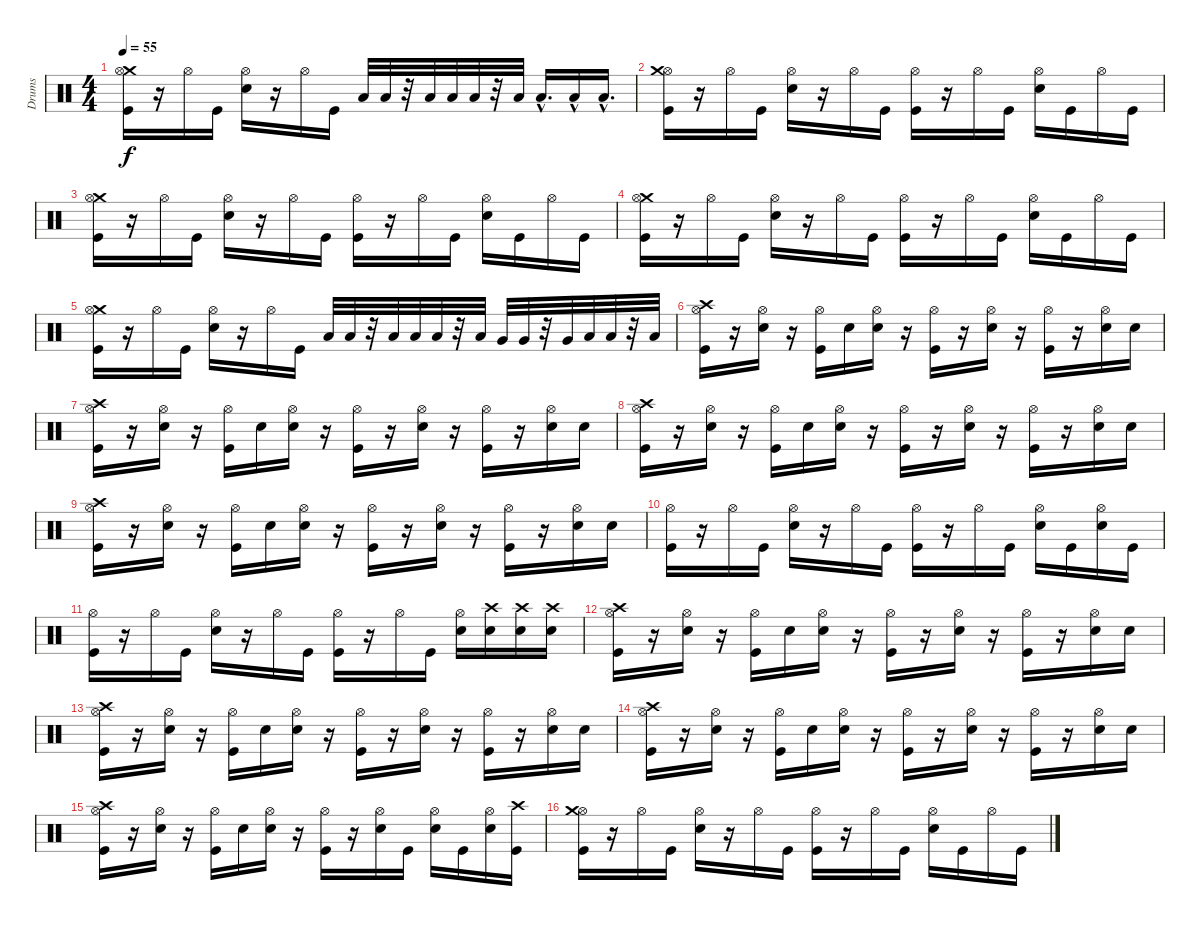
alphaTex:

\track ("Drums" "Drums") {instrument percussion}
\staff {score}
\articulation defaults
\ts (4 4)
\tempo 55
\clef neutral
\ks c
("Kick (hit)" "Crash medium (hit)" "Hi-Hat (open)").16{dy f} r.16 "Hi-Hat (open)".16 "Kick (hit)".16 ("Electric Snare (hit)" "Hi-Hat (open)").16 r.16 "Hi-Hat (open)".16 "Kick (hit)".16 "Low Tom (hit)".32 "Low Tom (hit)".32 r.32 "Low Tom (hit)".32 "Low Tom (hit)".32 "Low Tom (hit)".32 r.32 "Low Tom (hit)".32 "Low Tom (hit)"{hac}.16{d} "Low Tom (hit)"{hac}.16 "Low Tom (hit)"{hac}.16{d} |
("Kick (hit)" "Hi-Hat (open)" "Crash medium (hit)").16 r.16 "Hi-Hat (open)".16 "Kick (hit)".16 ("Hi-Hat (open)" "Electric Snare (hit)").16 r.16 "Hi-Hat (open)".16 "Kick (hit)".16 ("Hi-Hat (open)" "Kick (hit)").16 r.16 "Hi-Hat (open)".16 "Kick (hit)".16 ("Electric Snare (hit)" "Hi-Hat (open)").16 "Kick (hit)".16 "Hi-Hat (open)".16 "Kick (hit)".16 |
("Crash medium (hit)" "Hi-Hat (open)" "Kick (hit)").16 r.16 "Hi-Hat (open)".16 "Kick (hit)".16 ("Electric Snare (hit)" "Hi-Hat (open)").16 r.16 "Hi-Hat (open)".16 "Kick (hit)".16 ("Kick (hit)" "Hi-Hat (open)").16 r.16 "Hi-Hat (open)".16 "Kick (hit)".16 ("Hi-Hat (open)" "Electric Snare (hit)").16 "Kick (hit)".16 "Hi-Hat (open)".16 "Kick (hit)".16 |
("Crash medium (hit)" "Hi-Hat (open)" "Kick (hit)").16 r.16 "Hi-Hat (open)".16 "Kick (hit)".16 ("Hi-Hat (open)" "Electric Snare (hit)").16 r.16 "Hi-Hat (open)".16 "Kick (hit)".16 ("Hi-Hat (open)" "Kick (hit)").16 r.16 "Hi-Hat (open)".16 "Kick (hit)".16 ("Electric Snare (hit)" "Hi-Hat (open)").16 "Kick (hit)".16 "Hi-Hat (open)".16 "Kick (hit)".16 |
("Crash medium (hit)" "Kick (hit)" "Hi-Hat (open)").16 r.16 "Hi-Hat (open)".16 "Kick (hit)".16 ("Hi-Hat (open)" "Electric Snare (hit)").16 r.16 "Hi-Hat (open)".16 "Kick (hit)".16 "Low Tom (hit)".32 "Low Tom (hit)".32 r.32 "Low Tom (hit)".32 "Low Tom (hit)".32 "Low Tom (hit)".32 r.32 "Low Tom (hit)".32 "Very Low Tom (hit)".32 "Very Low Tom (hit)".32 r.32 "Very Low Tom (hit)".32 "Low Floor Tom (hit)".32 "Low Floor Tom (hit)".32 r.32 "Low Floor Tom (hit)".32 |
("Crash high (hit)" "Hi-Hat (open)" "Kick (hit)").16 r.16 ("Hi-Hat (open)" "Electric Snare (hit)").16 r.16 ("Hi-Hat (open)" "Kick (hit)").16 "Electric Snare (hit)".16 ("Electric Snare (hit)" "Hi-Hat (open)").16 r.16 ("Kick (hit)" "Hi-Hat (open)").16 r.16 ("Hi-Hat (open)" "Electric Snare (hit)").16 r.16 ("Hi-Hat (open)" "Kick (hit)").16 r.16 ("Hi-Hat (open)" "Electric Snare (hit)").16 "Electric Snare (hit)".16 |
("Crash high (hit)" "Hi-Hat (open)" "Kick (hit)").16 r.16 ("Hi-Hat (open)" "Electric Snare (hit)").16 r.16 ("Kick (hit)" "Hi-Hat (open)").16 "Electric Snare (hit)".16 ("Hi-Hat (open)" "Electric Snare (hit)").16 r.16 ("Kick (hit)" "Hi-Hat (open)").16 r.16 ("Electric Snare (hit)" "Hi-Hat (open)").16 r.16 ("Kick (hit)" "Hi-Hat (open)").16 r.16 ("Electric Snare (hit)" "Hi-Hat (open)").16 "Electric Snare (hit)".16 |
("Hi-Hat (open)" "Kick (hit)" "Crash high (hit)").16 r.16 ("Electric Snare (hit)" "Hi-Hat (open)").16 r.16 ("Hi-Hat (open)" "Kick (hit)").16 "Electric Snare (hit)".16 ("Hi-Hat (open)" "Electric Snare (hit)").16 r.16 ("Hi-Hat (open)" "Kick (hit)").16 r.16 ("Hi-Hat (open)" "Electric Snare (hit)").16 r.16 ("Hi-Hat (open)" "Kick (hit)").16 r.16 ("Electric Snare (hit)" "Hi-Hat (open)").16 "Electric Snare (hit)".16 |
("Kick (hit)" "Crash high (hit)" "Hi-Hat (open)").16 r.16 ("Electric Snare (hit)" "Hi-Hat (open)").16 r.16 ("Kick (hit)" "Hi-Hat (open)").16 "Electric Snare (hit)".16 ("Hi-Hat (open)" "Electric Snare (hit)").16 r.16 ("Hi-Hat (open)" "Kick (hit)").16 r.16 ("Electric Snare (hit)" "Hi-Hat (open)").16 r.16 ("Hi-Hat (open)" "Kick (hit)").16 r.16 ("Hi-Hat (open)" "Electric Snare (hit)").16 "Electric Snare (hit)".16 |
("Hi-Hat (open)" "Kick (hit)").16 r.16 "Hi-Hat (open)".16 "Kick (hit)".16 ("Hi-Hat (open)" "Electric Snare (hit)").16 r.16 "Hi-Hat (open)".16 "Kick (hit)".16 ("Hi-Hat (open)" "Kick (hit)").16 r.16 "Hi-Hat (open)".16 "Kick (hit)".16 ("Hi-Hat (open)" "Electric Snare (hit)").16 "Kick (hit)".16 ("Hi-Hat (open)" "Electric Snare (hit)").16 "Kick (hit)".16 |
("Hi-Hat (open)" "Kick (hit)").16 r.16 "Hi-Hat (open)".16 "Kick (hit)".16 ("Hi-Hat (open)" "Electric Snare (hit)").16 r.16 "Hi-Hat (open)".16 "Kick (hit)".16 ("Hi-Hat (open)" "Kick (hit)").16 r.16 "Hi-Hat (open)".16 "Kick (hit)".16 ("Hi-Hat (open)" "Electric Snare (hit)").16 ("Crash high (hit)" "Electric Snare (hit)").16 ("Crash high (hit)" "Electric Snare (hit)").16 ("Crash high (hit)" "Electric Snare (hit)").16 |
("Crash high (hit)" "Hi-Hat (open)" "Kick (hit)").16 r.16 ("Hi-Hat (open)" "Electric Snare (hit)").16 r.16 ("Hi-Hat (open)" "Kick (hit)").16 "Electric Snare (hit)".16 ("Electric Snare (hit)" "Hi-Hat (open)").16 r.16 ("Kick (hit)" "Hi-Hat (open)").16 r.16 ("Hi-Hat (open)" "Electric Snare (hit)").16 r.16 ("Hi-Hat (open)" "Kick (hit)").16 r.16 ("Hi-Hat (open)" "Electric Snare (hit)").16 "Electric Snare (hit)".16 |
("Crash high (hit)" "Hi-Hat (open)" "Kick (hit)").16 r.16 ("Hi-Hat (open)" "Electric Snare (hit)").16 r.16 ("Kick (hit)" "Hi-Hat (open)").16 "Electric Snare (hit)".16 ("Hi-Hat (open)" "Electric Snare (hit)").16 r.16 ("Kick (hit)" "Hi-Hat (open)").16 r.16 ("Electric Snare (hit)" "Hi-Hat (open)").16 r.16 ("Kick (hit)" "Hi-Hat (open)").16 r.16 ("Electric Snare (hit)" "Hi-Hat (open)").16 "Electric Snare (hit)".16 |
("Hi-Hat (open)" "Kick (hit)" "Crash high (hit)").16 r.16 ("Electric Snare (hit)" "Hi-Hat (open)").16 r.16 ("Hi-Hat (open)" "Kick (hit)").16 "Electric Snare (hit)".16 ("Hi-Hat (open)" "Electric Snare (hit)").16 r.16 ("Hi-Hat (open)" "Kick (hit)").16 r.16 ("Hi-Hat (open)" "Electric Snare (hit)").16 r.16 ("Hi-Hat (open)" "Kick (hit)").16 r.16 ("Electric Snare (hit)" "Hi-Hat (open)").16 "Electric Snare (hit)".16 |
("Kick (hit)" "Crash high (hit)" "Hi-Hat (open)").16 r.16 ("Electric Snare (hit)" "Hi-Hat (open)").16 r.16 ("Kick (hit)" "Hi-Hat (open)").16 "Electric Snare (hit)".16 ("Hi-Hat (open)" "Electric Snare (hit)").16 r.16 ("Hi-Hat (open)" "Kick (hit)").16 r.16 ("Electric Snare (hit)" "Hi-Hat (open)").16 "Kick (hit)".16 ("Electric Snare (hit)" "Hi-Hat (open)").16 "Kick (hit)".16 ("Hi-Hat (open)" "Electric Snare (hit)").16 ("Crash high (hit)" "Kick (hit)").16 |
("Kick (hit)" "Hi-Hat (open)" "Crash medium (hit)").16 r.16 "Hi-Hat (open)".16 "Kick (hit)".16 ("Hi-Hat (open)" "Electric Snare (hit)").16 r.16 "Hi-Hat (open)".16 "Kick (hit)".16 ("Kick (hit)" "Hi-Hat (open)").16 r.16 "Hi-Hat (open)".16 "Kick (hit)".16 ("Electric Snare (hit)" "Hi-Hat (open)").16 "Kick (hit)".16 "Hi-Hat (open)".16 "Kick (hit)".16
